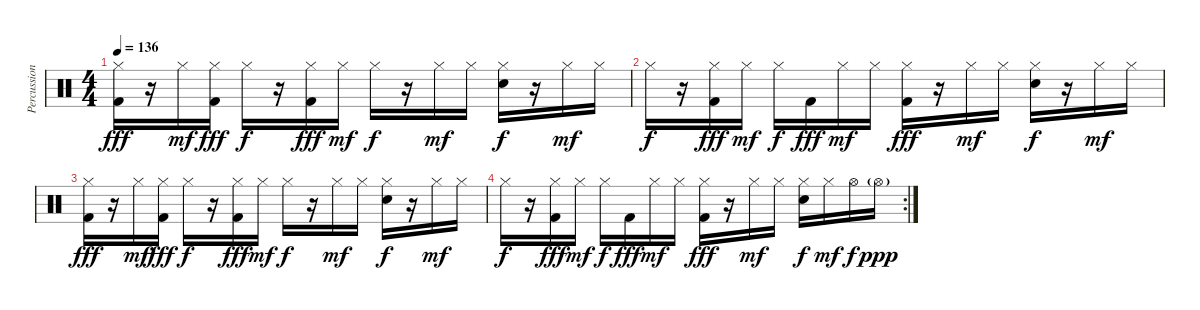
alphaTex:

\track ("Percussion" "Percussion") {instrument percussion}
\staff {score}
\articulation defaults
\ts (4 4)
\tempo 136
\clef neutral
\ks c
("Hi-Hat (closed)" "Kick (hit) 2").16{dy fff} r.16 "Hi-Hat (closed)".16{dy mf} ("Hi-Hat (closed)" "Kick (hit) 2").16{dy fff} "Hi-Hat (closed)".16{dy f} r.16 ("Hi-Hat (closed)" "Kick (hit) 2").16{dy fff} "Hi-Hat (closed)".16{dy mf} "Hi-Hat (closed)".16{dy f} r.16 "Hi-Hat (closed)".16{dy mf} "Hi-Hat (closed)".16 ("Hi-Hat (closed)" "Electric Snare (hit)").16{dy f} r.16 "Hi-Hat (closed)".16{dy mf} "Hi-Hat (closed)".16 |
"Hi-Hat (closed)".16{dy f} r.16 ("Hi-Hat (closed)" "Kick (hit) 2").16{dy fff} "Hi-Hat (closed)".16{dy mf} "Hi-Hat (closed)".16{dy f} "Kick (hit) 2".16{dy fff} "Hi-Hat (closed)".16{dy mf} "Hi-Hat (closed)".16 ("Hi-Hat (closed)" "Kick (hit) 2").16{dy fff} r.16 "Hi-Hat (closed)".16{dy mf} "Hi-Hat (closed)".16 ("Hi-Hat (closed)" "Electric Snare (hit)").16{dy f} r.16 "Hi-Hat (closed)".16{dy mf} "Hi-Hat (closed)".16 |
("Hi-Hat (closed)" "Kick (hit) 2").16{dy fff} r.16 "Hi-Hat (closed)".16{dy mf} ("Hi-Hat (closed)" "Kick (hit) 2").16{dy fff} "Hi-Hat (closed)".16{dy f} r.16 ("Hi-Hat (closed)" "Kick (hit) 2").16{dy fff} "Hi-Hat (closed)".16{dy mf} "Hi-Hat (closed)".16{dy f} r.16 "Hi-Hat (closed)".16{dy mf} "Hi-Hat (closed)".16 ("Hi-Hat (closed)" "Electric Snare (hit)").16{dy f} r.16 "Hi-Hat (closed)".16{dy mf} "Hi-Hat (closed)".16 |
\rc 2 "Hi-Hat (closed)".16{dy f}
r.16 ("Hi-Hat (closed)" "Kick (hit) 2").16{dy fff} "Hi-Hat (closed)".16{dy mf} "Hi-Hat (closed)".16{dy f} "Kick (hit) 2".16{dy fff} "Hi-Hat (closed)".16{dy mf} "Hi-Hat (closed)".16 ("Hi-Hat (closed)" "Kick (hit) 2").16{dy fff} r.16 "Hi-Hat (closed)".16{dy mf} "Hi-Hat (closed)".16 ("Hi-Hat (closed)" "Electric Snare (hit)").16{dy f} "Hi-Hat (closed)".16{dy mf} "Hi-Hat (open)".16{dy f} "Hi-Hat (open)"{g}.16{dy ppp}
